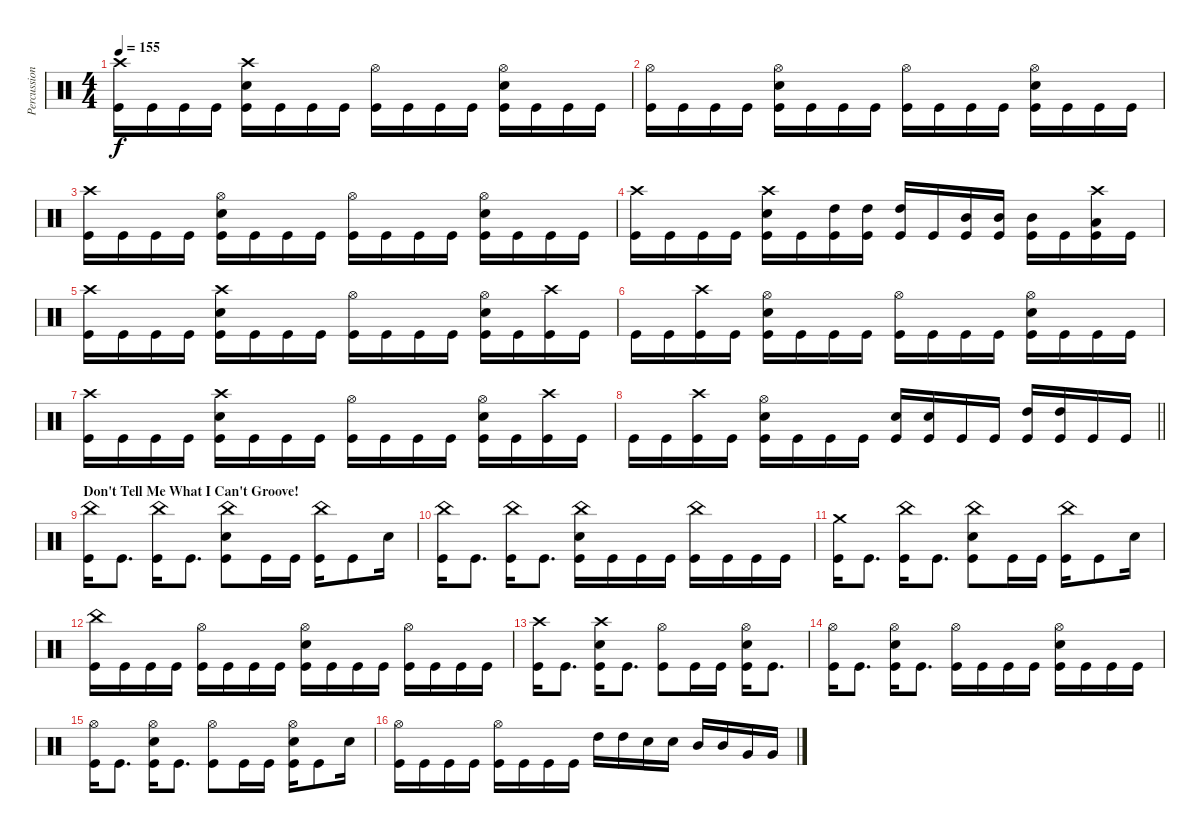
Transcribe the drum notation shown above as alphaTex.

\track ("Percussion" "Percussion") {instrument percussion}
\staff {score}
\articulation defaults
\ts (4 4)
\tempo 155
\clef neutral
\ks c
("Crash high (hit)" "Kick (hit)").16{dy f} "Kick (hit)".16 "Kick (hit)".16 "Kick (hit)".16 ("Crash high (hit)" "Electric Snare (hit)" "Kick (hit)").16 "Kick (hit)".16 "Kick (hit)".16 "Kick (hit)".16 ("Hi-Hat (open)" "Kick (hit)").16 "Kick (hit)".16 "Kick (hit)".16 "Kick (hit)".16 ("Hi-Hat (open)" "Electric Snare (hit)" "Kick (hit)").16 "Kick (hit)".16 "Kick (hit)".16 "Kick (hit)".16 |
("Hi-Hat (open)" "Kick (hit)").16 "Kick (hit)".16 "Kick (hit)".16 "Kick (hit)".16 ("Hi-Hat (open)" "Electric Snare (hit)" "Kick (hit)").16 "Kick (hit)".16 "Kick (hit)".16 "Kick (hit)".16 ("Hi-Hat (open)" "Kick (hit)").16 "Kick (hit)".16 "Kick (hit)".16 "Kick (hit)".16 ("Hi-Hat (open)" "Electric Snare (hit)" "Kick (hit)").16 "Kick (hit)".16 "Kick (hit)".16 "Kick (hit)".16 |
("Crash high (hit)" "Kick (hit)").16 "Kick (hit)".16 "Kick (hit)".16 "Kick (hit)".16 ("Hi-Hat (open)" "Electric Snare (hit)" "Kick (hit)").16 "Kick (hit)".16 "Kick (hit)".16 "Kick (hit)".16 ("Hi-Hat (open)" "Kick (hit)").16 "Kick (hit)".16 "Kick (hit)".16 "Kick (hit)".16 ("Hi-Hat (open)" "Electric Snare (hit)" "Kick (hit)").16 "Kick (hit)".16 "Kick (hit)".16 "Kick (hit)".16 |
("Crash high (hit)" "Kick (hit)").16 "Kick (hit)".16 "Kick (hit)".16 "Kick (hit)".16 ("Crash high (hit)" "Electric Snare (hit)" "Kick (hit)").16 "Kick (hit)".16 ("High Tom (hit)" "Kick (hit)").16 ("High Tom (hit)" "Kick (hit)").16 ("High Tom (hit)" "Kick (hit)").16 "Kick (hit)".16 ("Mid Tom (hit)" "Kick (hit)").16 ("Mid Tom (hit)" "Kick (hit)").16 ("Mid Tom (hit)" "Kick (hit)").16 "Kick (hit)".16 ("Crash high (hit)" "Low Tom (hit)" "Kick (hit)").16 "Kick (hit)".16 |
("Crash high (hit)" "Kick (hit)").16 "Kick (hit)".16 "Kick (hit)".16 "Kick (hit)".16 ("Crash high (hit)" "Electric Snare (hit)" "Kick (hit)").16 "Kick (hit)".16 "Kick (hit)".16 "Kick (hit)".16 ("Hi-Hat (open)" "Kick (hit)").16 "Kick (hit)".16 "Kick (hit)".16 "Kick (hit)".16 ("Hi-Hat (open)" "Electric Snare (hit)" "Kick (hit)").16 "Kick (hit)".16 ("Crash high (hit)" "Kick (hit)").16 "Kick (hit)".16 |
"Kick (hit)".16 "Kick (hit)".16 ("Crash high (hit)" "Kick (hit)").16 "Kick (hit)".16 ("Hi-Hat (open)" "Electric Snare (hit)" "Kick (hit)").16 "Kick (hit)".16 "Kick (hit)".16 "Kick (hit)".16 ("Hi-Hat (open)" "Kick (hit)").16 "Kick (hit)".16 "Kick (hit)".16 "Kick (hit)".16 ("Hi-Hat (open)" "Electric Snare (hit)" "Kick (hit)").16 "Kick (hit)".16 "Kick (hit)".16 "Kick (hit)".16 |
("Crash high (hit)" "Kick (hit)").16 "Kick (hit)".16 "Kick (hit)".16 "Kick (hit)".16 ("Crash high (hit)" "Electric Snare (hit)" "Kick (hit)").16 "Kick (hit)".16 "Kick (hit)".16 "Kick (hit)".16 ("Hi-Hat (open)" "Kick (hit)").16 "Kick (hit)".16 "Kick (hit)".16 "Kick (hit)".16 ("Hi-Hat (open)" "Electric Snare (hit)" "Kick (hit)").16 "Kick (hit)".16 ("Crash high (hit)" "Kick (hit)").16 "Kick (hit)".16 |
\barLineRight lightlight "Kick (hit)".16 "Kick (hit)".16
("Crash high (hit)" "Kick (hit)").16 "Kick (hit)".16 ("Hi-Hat (open)" "Electric Snare (hit)" "Kick (hit)").16 "Kick (hit)".16 "Kick (hit)".16 "Kick (hit)".16 ("Electric Snare (hit)" "Kick (hit)").16 ("Electric Snare (hit)" "Kick (hit)").16 "Kick (hit)".16 "Kick (hit)".16 ("High Tom (hit)" "Kick (hit)").16 ("High Tom (hit)" "Kick (hit)").16 "Kick (hit)".16 "Kick (hit)".16 |
\section ("" "Don't Tell Me What I Can't Groove!")
("China (hit)" "Kick (hit)").16 "Kick (hit)".8{d} ("China (hit)" "Kick (hit)").16 "Kick (hit)".8{d} ("China (hit)" "Electric Snare (hit)" "Kick (hit)").8 "Kick (hit)".16 "Kick (hit)".16 ("China (hit)" "Kick (hit)").16 "Kick (hit)".8 "Electric Snare (hit)".16 |
("China (hit)" "Kick (hit)").16 "Kick (hit)".8{d} ("China (hit)" "Kick (hit)").16 "Kick (hit)".8{d} ("China (hit)" "Electric Snare (hit)" "Kick (hit)").16 "Kick (hit)".16 "Kick (hit)".16 "Kick (hit)".16 ("China (hit)" "Kick (hit)").16 "Kick (hit)".16 "Kick (hit)".16 "Kick (hit)".16 |
("Crash medium (hit)" "Kick (hit)").16 "Kick (hit)".8{d} ("China (hit)" "Kick (hit)").16 "Kick (hit)".8{d} ("China (hit)" "Electric Snare (hit)" "Kick (hit)").8 "Kick (hit)".16 "Kick (hit)".16 ("China (hit)" "Kick (hit)").16 "Kick (hit)".8 "Electric Snare (hit)".16 |
("China (hit)" "Kick (hit)").16 "Kick (hit)".16 "Kick (hit)".16 "Kick (hit)".16 ("Hi-Hat (open)" "Kick (hit)").16 "Kick (hit)".16 "Kick (hit)".16 "Kick (hit)".16 ("Hi-Hat (open)" "Electric Snare (hit)" "Kick (hit)").16 "Kick (hit)".16 "Kick (hit)".16 "Kick (hit)".16 ("Hi-Hat (open)" "Kick (hit)").16 "Kick (hit)".16 "Kick (hit)".16 "Kick (hit)".16 |
("Crash high (hit)" "Kick (hit)").16 "Kick (hit)".8{d} ("Crash high (hit)" "Electric Snare (hit)" "Kick (hit)").16 "Kick (hit)".8{d} ("Hi-Hat (open)" "Kick (hit)").8 "Kick (hit)".16 "Kick (hit)".16 ("Hi-Hat (open)" "Electric Snare (hit)" "Kick (hit)").16 "Kick (hit)".8{d} |
("Hi-Hat (open)" "Kick (hit)").16 "Kick (hit)".8{d} ("Hi-Hat (open)" "Electric Snare (hit)" "Kick (hit)").16 "Kick (hit)".8{d} ("Hi-Hat (open)" "Kick (hit)").16 "Kick (hit)".16 "Kick (hit)".16 "Kick (hit)".16 ("Hi-Hat (open)" "Electric Snare (hit)" "Kick (hit)").16 "Kick (hit)".16 "Kick (hit)".16 "Kick (hit)".16 |
("Hi-Hat (open)" "Kick (hit)").16 "Kick (hit)".8{d} ("Hi-Hat (open)" "Electric Snare (hit)" "Kick (hit)").16 "Kick (hit)".8{d} ("Hi-Hat (open)" "Kick (hit)").8 "Kick (hit)".16 "Kick (hit)".16 ("Hi-Hat (open)" "Electric Snare (hit)" "Kick (hit)").16 "Kick (hit)".8 "Electric Snare (hit)".16 |
("Hi-Hat (open)" "Kick (hit)").16 "Kick (hit)".16 "Kick (hit)".16 "Kick (hit)".16 ("Hi-Hat (open)" "Kick (hit)").16 "Kick (hit)".16 "Kick (hit)".16 "Kick (hit)".16 "High Tom (hit)".16 "High Tom (hit)".16 "Electric Snare (hit)".16 "Electric Snare (hit)".16 "Mid Tom (hit)".16 "Mid Tom (hit)".16 "Very Low Tom (hit)".16 "Very Low Tom (hit)".16
